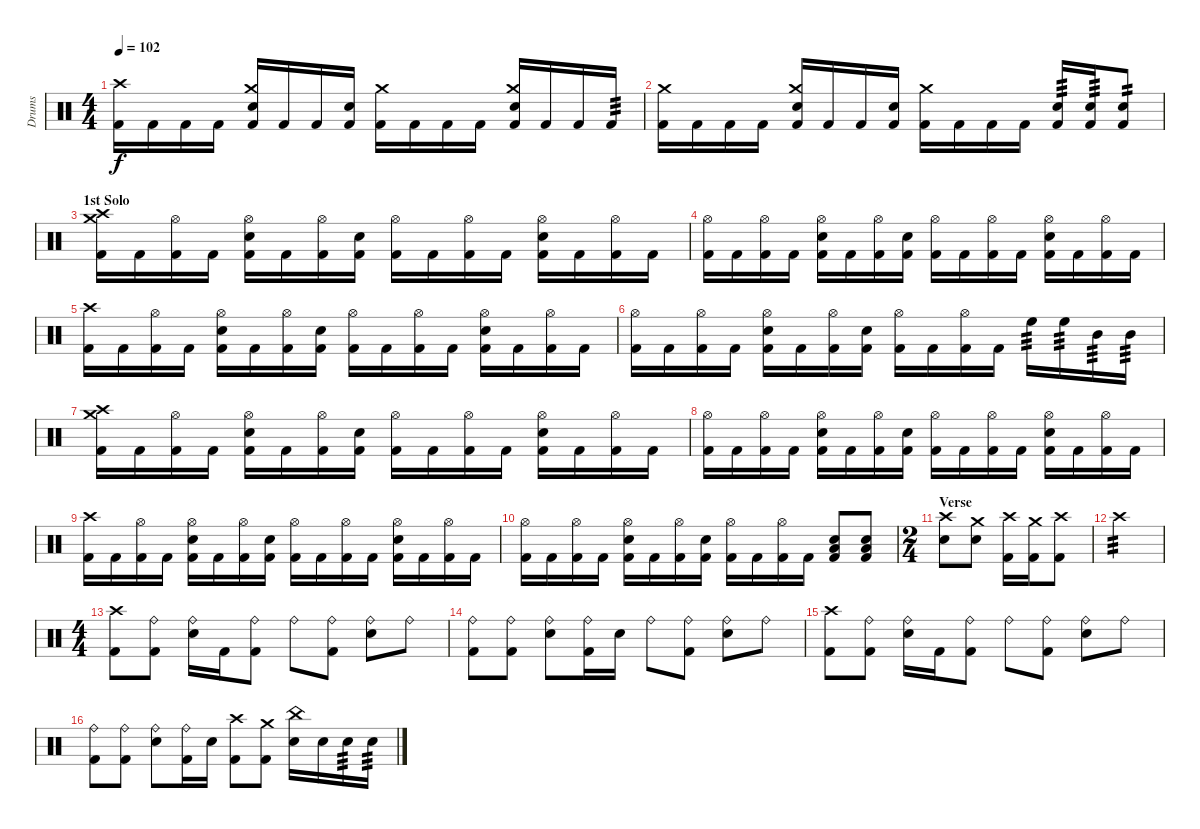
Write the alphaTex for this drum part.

\track ("Drums" "Drums") {instrument percussion}
\staff {score}
\articulation defaults
\ts (4 4)
\tempo 102
\clef neutral
\ks c
("Crash high (hit)" "Kick (hit) 2").16{dy f} "Kick (hit) 2".16 "Kick (hit) 2".16 "Kick (hit) 2".16 ("Crash medium (hit)" "Snare (hit) 2" "Kick (hit) 2").16 "Kick (hit) 2".16 "Kick (hit) 2".16 ("Snare (hit) 2" "Kick (hit) 2").16 ("Crash medium (hit)" "Kick (hit) 2").16 "Kick (hit) 2".16 "Kick (hit) 2".16 "Kick (hit) 2".16 ("Crash medium (hit)" "Snare (hit) 2" "Kick (hit) 2").16 "Kick (hit) 2".16 "Kick (hit) 2".16 "Kick (hit) 2".16{tp 3} |
("Crash medium (hit)" "Kick (hit) 2").16 "Kick (hit) 2".16 "Kick (hit) 2".16 "Kick (hit) 2".16 ("Crash medium (hit)" "Snare (hit) 2" "Kick (hit) 2").16 "Kick (hit) 2".16 "Kick (hit) 2".16 ("Snare (hit) 2" "Kick (hit) 2").16 ("Crash medium (hit)" "Kick (hit) 2").16 "Kick (hit) 2".16 "Kick (hit) 2".16 "Kick (hit) 2".16 ("Snare (hit) 2" "Kick (hit) 2").16{tp 3} ("Snare (hit) 2" "Kick (hit) 2").16{tp 3} ("Snare (hit) 2" "Kick (hit) 2").8{tp 2} |
\section ("" "1st Solo")
("Crash high (hit)" "Crash medium (hit)" "Kick (hit) 2").16 "Kick (hit) 2".16 ("Hi-Hat (open)" "Kick (hit) 2").16 "Kick (hit) 2".16 ("Hi-Hat (open)" "Snare (hit) 2" "Kick (hit) 2").16 "Kick (hit) 2".16 ("Hi-Hat (open)" "Kick (hit) 2").16 ("Snare (hit) 2" "Kick (hit) 2").16 ("Hi-Hat (open)" "Kick (hit) 2").16 "Kick (hit) 2".16 ("Hi-Hat (open)" "Kick (hit) 2").16 "Kick (hit) 2".16 ("Hi-Hat (open)" "Snare (hit) 2" "Kick (hit) 2").16 "Kick (hit) 2".16 ("Hi-Hat (open)" "Kick (hit) 2").16 "Kick (hit) 2".16 |
("Hi-Hat (open)" "Kick (hit) 2").16 "Kick (hit) 2".16 ("Hi-Hat (open)" "Kick (hit) 2").16 "Kick (hit) 2".16 ("Hi-Hat (open)" "Snare (hit) 2" "Kick (hit) 2").16 "Kick (hit) 2".16 ("Hi-Hat (open)" "Kick (hit) 2").16 ("Snare (hit) 2" "Kick (hit) 2").16 ("Hi-Hat (open)" "Kick (hit) 2").16 "Kick (hit) 2".16 ("Hi-Hat (open)" "Kick (hit) 2").16 "Kick (hit) 2".16 ("Hi-Hat (open)" "Snare (hit) 2" "Kick (hit) 2").16 "Kick (hit) 2".16 ("Hi-Hat (open)" "Kick (hit) 2").16 "Kick (hit) 2".16 |
("Crash high (hit)" "Kick (hit) 2").16 "Kick (hit) 2".16 ("Hi-Hat (open)" "Kick (hit) 2").16 "Kick (hit) 2".16 ("Hi-Hat (open)" "Snare (hit) 2" "Kick (hit) 2").16 "Kick (hit) 2".16 ("Hi-Hat (open)" "Kick (hit) 2").16 ("Snare (hit) 2" "Kick (hit) 2").16 ("Hi-Hat (open)" "Kick (hit) 2").16 "Kick (hit) 2".16 ("Hi-Hat (open)" "Kick (hit) 2").16 "Kick (hit) 2".16 ("Hi-Hat (open)" "Snare (hit) 2" "Kick (hit) 2").16 "Kick (hit) 2".16 ("Hi-Hat (open)" "Kick (hit) 2").16 "Kick (hit) 2".16 |
("Hi-Hat (open)" "Kick (hit) 2").16 "Kick (hit) 2".16 ("Hi-Hat (open)" "Kick (hit) 2").16 "Kick (hit) 2".16 ("Hi-Hat (open)" "Snare (hit) 2" "Kick (hit) 2").16 "Kick (hit) 2".16 ("Hi-Hat (open)" "Kick (hit) 2").16 ("Snare (hit) 2" "Kick (hit) 2").16 ("Hi-Hat (open)" "Kick (hit) 2").16 "Kick (hit) 2".16 ("Hi-Hat (open)" "Kick (hit) 2").16 "Kick (hit) 2".16 "High Floor Tom (hit)".16{tp 3} "High Floor Tom (hit)".16{tp 3} "Mid Tom (hit)".16{tp 3} "Mid Tom (hit)".16{tp 3} |
("Crash high (hit)" "Crash medium (hit)" "Kick (hit) 2").16 "Kick (hit) 2".16 ("Hi-Hat (open)" "Kick (hit) 2").16 "Kick (hit) 2".16 ("Hi-Hat (open)" "Snare (hit) 2" "Kick (hit) 2").16 "Kick (hit) 2".16 ("Hi-Hat (open)" "Kick (hit) 2").16 ("Snare (hit) 2" "Kick (hit) 2").16 ("Hi-Hat (open)" "Kick (hit) 2").16 "Kick (hit) 2".16 ("Hi-Hat (open)" "Kick (hit) 2").16 "Kick (hit) 2".16 ("Hi-Hat (open)" "Snare (hit) 2" "Kick (hit) 2").16 "Kick (hit) 2".16 ("Hi-Hat (open)" "Kick (hit) 2").16 "Kick (hit) 2".16 |
("Hi-Hat (open)" "Kick (hit) 2").16 "Kick (hit) 2".16 ("Hi-Hat (open)" "Kick (hit) 2").16 "Kick (hit) 2".16 ("Hi-Hat (open)" "Snare (hit) 2" "Kick (hit) 2").16 "Kick (hit) 2".16 ("Hi-Hat (open)" "Kick (hit) 2").16 ("Snare (hit) 2" "Kick (hit) 2").16 ("Hi-Hat (open)" "Kick (hit) 2").16 "Kick (hit) 2".16 ("Hi-Hat (open)" "Kick (hit) 2").16 "Kick (hit) 2".16 ("Hi-Hat (open)" "Snare (hit) 2" "Kick (hit) 2").16 "Kick (hit) 2".16 ("Hi-Hat (open)" "Kick (hit) 2").16 "Kick (hit) 2".16 |
("Crash high (hit)" "Kick (hit) 2").16 "Kick (hit) 2".16 ("Hi-Hat (open)" "Kick (hit) 2").16 "Kick (hit) 2".16 ("Hi-Hat (open)" "Snare (hit) 2" "Kick (hit) 2").16 "Kick (hit) 2".16 ("Hi-Hat (open)" "Kick (hit) 2").16 ("Snare (hit) 2" "Kick (hit) 2").16 ("Hi-Hat (open)" "Kick (hit) 2").16 "Kick (hit) 2".16 ("Hi-Hat (open)" "Kick (hit) 2").16 "Kick (hit) 2".16 ("Hi-Hat (open)" "Snare (hit) 2" "Kick (hit) 2").16 "Kick (hit) 2".16 ("Hi-Hat (open)" "Kick (hit) 2").16 "Kick (hit) 2".16 |
("Hi-Hat (open)" "Kick (hit) 2").16 "Kick (hit) 2".16 ("Hi-Hat (open)" "Kick (hit) 2").16 "Kick (hit) 2".16 ("Hi-Hat (open)" "Snare (hit) 2" "Kick (hit) 2").16 "Kick (hit) 2".16 ("Hi-Hat (open)" "Kick (hit) 2").16 ("Snare (hit) 2" "Kick (hit) 2").16 ("Hi-Hat (open)" "Kick (hit) 2").16 "Kick (hit) 2".16 ("Hi-Hat (open)" "Kick (hit) 2").16 "Kick (hit) 2".16 ("Snare (hit) 2" "Low Tom (hit)" "Kick (hit) 2").8 ("Snare (hit) 2" "Low Tom (hit)" "Kick (hit) 2").8 |
\ts (2 4)
\section ("" "Verse")
("Crash high (hit)" "Snare (hit) 2").8 ("Crash medium (hit)" "Snare (hit) 2").8 ("Crash high (hit)" "Kick (hit) 2").16 ("Crash medium (hit)" "Kick (hit) 2").16 ("Crash high (hit)" "Kick (hit) 2").8 |
"Crash high (hit)".2{tp 3 volume 10} |
\ts (4 4)
("Crash high (hit)" "Kick (hit) 2").8{volume 13} ("Ride (bell)" "Kick (hit) 2").8 ("Ride (bell)" "Snare (hit) 2").16 "Kick (hit) 2".16 ("Ride (bell)" "Kick (hit) 2").8 "Ride (bell)".8 ("Ride (bell)" "Kick (hit) 2").8 ("Ride (bell)" "Snare (hit) 2").8 "Ride (bell)".8 |
("Ride (bell)" "Kick (hit) 2").8 ("Ride (bell)" "Kick (hit) 2").8 ("Ride (bell)" "Snare (hit) 2").8 ("Ride (bell)" "Kick (hit) 2").16 "Snare (hit) 2".16 "Ride (bell)".8 ("Ride (bell)" "Kick (hit) 2").8 ("Ride (bell)" "Snare (hit) 2").8 "Ride (bell)".8 |
("Crash high (hit)" "Kick (hit) 2").8 ("Ride (bell)" "Kick (hit) 2").8 ("Ride (bell)" "Snare (hit) 2").16 "Kick (hit) 2".16 ("Ride (bell)" "Kick (hit) 2").8 "Ride (bell)".8 ("Ride (bell)" "Kick (hit) 2").8 ("Ride (bell)" "Snare (hit) 2").8 "Ride (bell)".8 |
("Ride (bell)" "Kick (hit) 2").8 ("Ride (bell)" "Kick (hit) 2").8 ("Ride (bell)" "Snare (hit) 2").8 ("Ride (bell)" "Kick (hit) 2").16 "Snare (hit) 2".16 ("Crash high (hit)" "Kick (hit) 2").8 ("Crash medium (hit)" "Kick (hit) 2").8 ("China (hit)" "Snare (hit) 2").16 "Snare (hit) 2".16 "Snare (hit) 2".16{tp 3} "Snare (hit) 2".16{tp 3}
